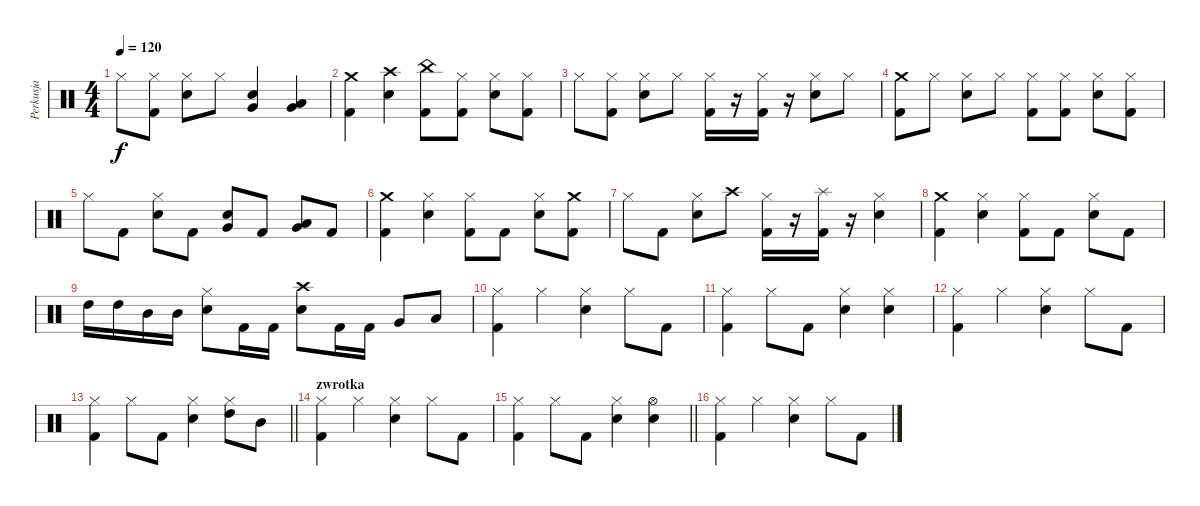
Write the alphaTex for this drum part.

\track ("Perkusja" "Perkusja") {instrument percussion}
\staff {score}
\articulation defaults
\ts (4 4)
\tempo 120
\clef neutral
\ks c "Hi-Hat (closed)".8{dy f}
("Hi-Hat (closed)" "Kick (hit) 2").8 ("Hi-Hat (closed)" "Snare (hit) 2").8 "Hi-Hat (closed)".8 ("Snare (hit) 2" "Very Low Tom (hit)").4 ("Very Low Tom (hit)" "Low Floor Tom (hit)").4 |
("Kick (hit) 2" "Crash medium (hit)").4 ("Crash high (hit)" "Snare (hit) 2").4 ("China (hit)" "Kick (hit) 2").8 ("Hi-Hat (closed)" "Kick (hit) 2").8 ("Hi-Hat (closed)" "Snare (hit) 2").8 ("Hi-Hat (closed)" "Kick (hit) 2").8 |
"Hi-Hat (closed)".8 ("Hi-Hat (closed)" "Kick (hit) 2").8 ("Hi-Hat (closed)" "Snare (hit) 2").8 "Hi-Hat (closed)".8 ("Hi-Hat (closed)" "Kick (hit) 2").16 r.16 ("Hi-Hat (closed)" "Kick (hit) 2").16 r.16 ("Hi-Hat (closed)" "Snare (hit) 2").8 "Hi-Hat (closed)".8 |
("Crash medium (hit)" "Kick (hit) 2").8 "Hi-Hat (closed)".8 ("Hi-Hat (closed)" "Snare (hit) 2").8 "Hi-Hat (closed)".8 ("Hi-Hat (closed)" "Kick (hit) 2").8 ("Hi-Hat (closed)" "Kick (hit) 2").8 ("Hi-Hat (closed)" "Snare (hit) 2").8 ("Hi-Hat (closed)" "Kick (hit) 2").8 |
"Hi-Hat (closed)".8 "Kick (hit) 2".8 ("Hi-Hat (closed)" "Snare (hit) 2").8 "Kick (hit) 2".8 ("Snare (hit) 2" "Very Low Tom (hit)").8 "Kick (hit) 2".8 ("Very Low Tom (hit)" "Low Floor Tom (hit)").8 "Kick (hit) 2".8 |
("Kick (hit) 2" "Crash medium (hit)").4 ("Hi-Hat (closed)" "Snare (hit) 2").4 ("Hi-Hat (closed)" "Kick (hit) 2").8 "Kick (hit) 2".8 ("Hi-Hat (closed)" "Snare (hit) 2").8 ("Crash medium (hit)" "Kick (hit) 2").8 |
"Hi-Hat (closed)".8 "Kick (hit) 2".8 ("Hi-Hat (closed)" "Snare (hit) 2").8 "Crash high (hit)".8 ("Hi-Hat (closed)" "Kick (hit) 2").16 r.16 ("Splash (hit)" "Kick (hit) 2").16 r.16 ("Hi-Hat (closed)" "Snare (hit) 2").4 |
("Crash medium (hit)" "Kick (hit) 2").4 ("Hi-Hat (closed)" "Snare (hit) 2").4 ("Hi-Hat (closed)" "Kick (hit) 2").8 "Kick (hit) 2".8 ("Hi-Hat (closed)" "Snare (hit) 2").8 "Kick (hit) 2".8 |
"High Tom (hit)".16 "High Tom (hit)".16 "Mid Tom (hit)".16 "Mid Tom (hit)".16 ("Hi-Hat (closed)" "Snare (hit) 2").8 "Kick (hit) 2".16 "Kick (hit) 2".16 ("Crash high (hit)" "Snare (hit) 2").8 "Kick (hit) 2".16 "Kick (hit) 2".16 "Very Low Tom (hit)".8 "Low Floor Tom (hit)".8 |
("Hi-Hat (closed)" "Kick (hit) 2").4 "Hi-Hat (closed)".4 ("Hi-Hat (closed)" "Snare (hit) 2").4 "Hi-Hat (closed)".8 "Kick (hit) 2".8 |
("Hi-Hat (closed)" "Kick (hit) 2").4 "Hi-Hat (closed)".8 "Kick (hit) 2".8 ("Hi-Hat (closed)" "Snare (hit) 2").4 ("Hi-Hat (closed)" "Snare (hit) 2").4 |
("Hi-Hat (closed)" "Kick (hit) 2").4 "Hi-Hat (closed)".4 ("Hi-Hat (closed)" "Snare (hit) 2").4 "Hi-Hat (closed)".8 "Kick (hit) 2".8 |
\barLineRight lightlight
("Hi-Hat (closed)" "Kick (hit) 2").4 "Hi-Hat (closed)".8 "Kick (hit) 2".8 ("Hi-Hat (closed)" "Snare (hit) 2").4 ("Hi-Hat (closed)" "High Tom (hit)").8 "Mid Tom (hit)".8 |
\section ("" "zwrotka")
("Hi-Hat (closed)" "Kick (hit) 2").4 "Hi-Hat (closed)".4 ("Hi-Hat (closed)" "Snare (hit) 2").4 "Hi-Hat (closed)".8 "Kick (hit) 2".8 |
\barLineRight lightlight
("Hi-Hat (closed)" "Kick (hit) 2").4 "Hi-Hat (closed)".8 "Kick (hit) 2".8 ("Hi-Hat (closed)" "Snare (hit) 2").4 ("Hi-Hat (open)" "Snare (hit) 2").4 |
("Hi-Hat (closed)" "Kick (hit) 2").4 "Hi-Hat (closed)".4 ("Hi-Hat (closed)" "Snare (hit) 2").4 "Hi-Hat (closed)".8 "Kick (hit) 2".8
